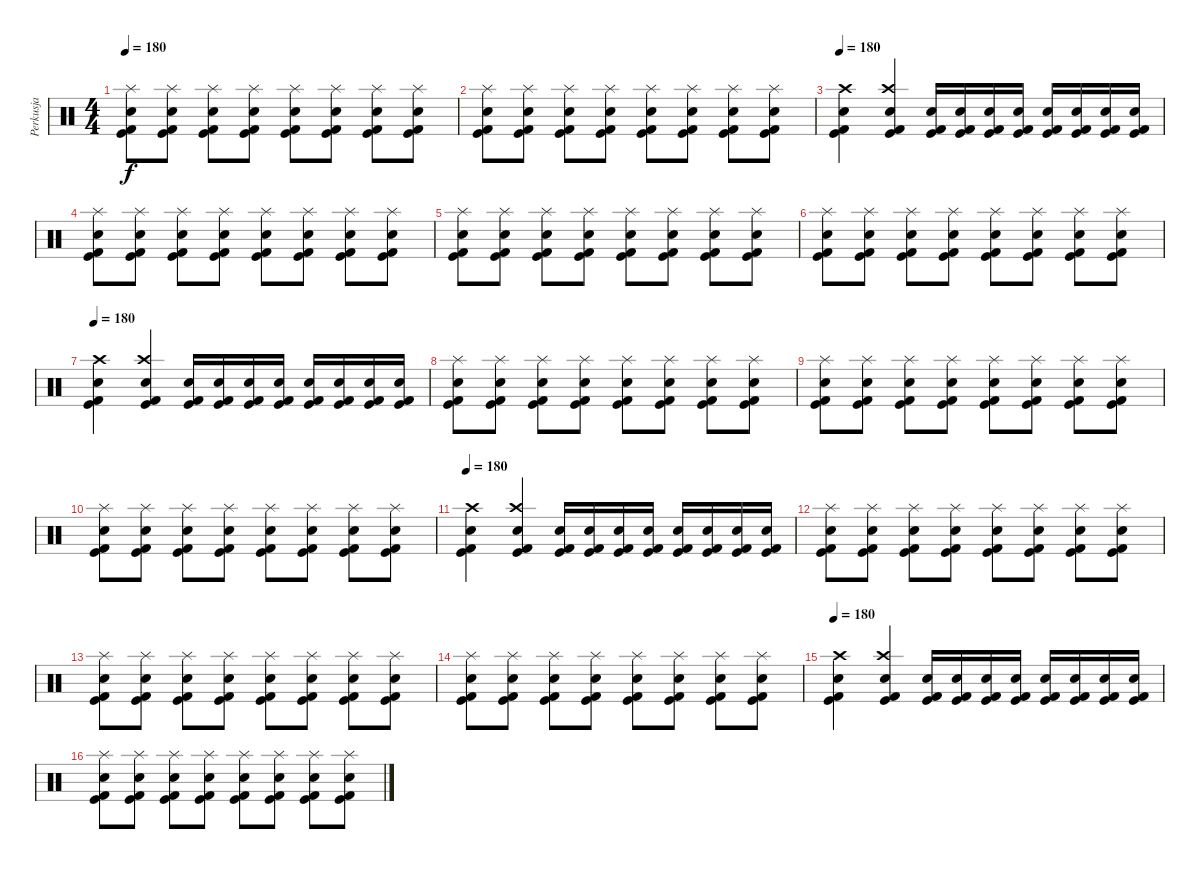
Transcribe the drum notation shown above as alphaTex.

\track ("Perkusja" "Perkusja") {instrument percussion}
\staff {score}
\articulation defaults
\ts (4 4)
\tempo 180
\clef neutral
\ks c
("Kick (hit)" "Kick (hit) 2" "Snare (hit) 2" "Splash (hit)").8{dy f} ("Kick (hit)" "Kick (hit) 2" "Snare (hit) 2" "Splash (hit)").8 ("Kick (hit)" "Kick (hit) 2" "Snare (hit) 2" "Splash (hit)").8 ("Kick (hit)" "Kick (hit) 2" "Snare (hit) 2" "Splash (hit)").8 ("Kick (hit)" "Kick (hit) 2" "Snare (hit) 2" "Splash (hit)").8 ("Kick (hit)" "Kick (hit) 2" "Snare (hit) 2" "Splash (hit)").8 ("Kick (hit)" "Kick (hit) 2" "Snare (hit) 2" "Splash (hit)").8 ("Kick (hit)" "Kick (hit) 2" "Snare (hit) 2" "Splash (hit)").8 |
("Kick (hit)" "Kick (hit) 2" "Snare (hit) 2" "Splash (hit)").8 ("Kick (hit)" "Kick (hit) 2" "Snare (hit) 2" "Splash (hit)").8 ("Kick (hit)" "Kick (hit) 2" "Snare (hit) 2" "Splash (hit)").8 ("Kick (hit)" "Kick (hit) 2" "Snare (hit) 2" "Splash (hit)").8 ("Kick (hit)" "Kick (hit) 2" "Snare (hit) 2" "Splash (hit)").8 ("Kick (hit)" "Kick (hit) 2" "Snare (hit) 2" "Splash (hit)").8 ("Kick (hit)" "Kick (hit) 2" "Snare (hit) 2" "Splash (hit)").8 ("Kick (hit)" "Kick (hit) 2" "Snare (hit) 2" "Splash (hit)").8 |
\tempo 180
("Crash high (hit)" "Snare (hit) 2" "Kick (hit) 2" "Kick (hit)").4 ("Crash high (hit)" "Electric Snare (hit)" "Kick (hit) 2" "Kick (hit)").4 ("Snare (hit) 2" "Kick (hit) 2" "Kick (hit)").16 ("Snare (hit) 2" "Kick (hit) 2" "Kick (hit)").16 ("Snare (hit) 2" "Kick (hit) 2" "Kick (hit)").16 ("Snare (hit) 2" "Kick (hit) 2" "Kick (hit)").16 ("Snare (hit) 2" "Kick (hit) 2" "Kick (hit)").16 ("Snare (hit) 2" "Kick (hit) 2" "Kick (hit)").16 ("Snare (hit) 2" "Kick (hit) 2" "Kick (hit)").16 ("Snare (hit) 2" "Kick (hit) 2" "Kick (hit)").16 |
("Kick (hit)" "Kick (hit) 2" "Snare (hit) 2" "Splash (hit)").8 ("Kick (hit)" "Kick (hit) 2" "Snare (hit) 2" "Splash (hit)").8 ("Kick (hit)" "Kick (hit) 2" "Snare (hit) 2" "Splash (hit)").8 ("Kick (hit)" "Kick (hit) 2" "Snare (hit) 2" "Splash (hit)").8 ("Kick (hit)" "Kick (hit) 2" "Snare (hit) 2" "Splash (hit)").8 ("Kick (hit)" "Kick (hit) 2" "Snare (hit) 2" "Splash (hit)").8 ("Kick (hit)" "Kick (hit) 2" "Snare (hit) 2" "Splash (hit)").8 ("Kick (hit)" "Kick (hit) 2" "Snare (hit) 2" "Splash (hit)").8 |
("Kick (hit)" "Kick (hit) 2" "Snare (hit) 2" "Splash (hit)").8 ("Kick (hit)" "Kick (hit) 2" "Snare (hit) 2" "Splash (hit)").8 ("Kick (hit)" "Kick (hit) 2" "Snare (hit) 2" "Splash (hit)").8 ("Kick (hit)" "Kick (hit) 2" "Snare (hit) 2" "Splash (hit)").8 ("Kick (hit)" "Kick (hit) 2" "Snare (hit) 2" "Splash (hit)").8 ("Kick (hit)" "Kick (hit) 2" "Snare (hit) 2" "Splash (hit)").8 ("Kick (hit)" "Kick (hit) 2" "Snare (hit) 2" "Splash (hit)").8 ("Kick (hit)" "Kick (hit) 2" "Snare (hit) 2" "Splash (hit)").8 |
("Kick (hit)" "Kick (hit) 2" "Snare (hit) 2" "Splash (hit)").8 ("Kick (hit)" "Kick (hit) 2" "Snare (hit) 2" "Splash (hit)").8 ("Kick (hit)" "Kick (hit) 2" "Snare (hit) 2" "Splash (hit)").8 ("Kick (hit)" "Kick (hit) 2" "Snare (hit) 2" "Splash (hit)").8 ("Kick (hit)" "Kick (hit) 2" "Snare (hit) 2" "Splash (hit)").8 ("Kick (hit)" "Kick (hit) 2" "Snare (hit) 2" "Splash (hit)").8 ("Kick (hit)" "Kick (hit) 2" "Snare (hit) 2" "Splash (hit)").8 ("Kick (hit)" "Kick (hit) 2" "Snare (hit) 2" "Splash (hit)").8 |
\tempo 180
("Crash high (hit)" "Snare (hit) 2" "Kick (hit) 2" "Kick (hit)").4 ("Crash high (hit)" "Electric Snare (hit)" "Kick (hit) 2" "Kick (hit)").4 ("Snare (hit) 2" "Kick (hit) 2" "Kick (hit)").16 ("Snare (hit) 2" "Kick (hit) 2" "Kick (hit)").16 ("Snare (hit) 2" "Kick (hit) 2" "Kick (hit)").16 ("Snare (hit) 2" "Kick (hit) 2" "Kick (hit)").16 ("Snare (hit) 2" "Kick (hit) 2" "Kick (hit)").16 ("Snare (hit) 2" "Kick (hit) 2" "Kick (hit)").16 ("Snare (hit) 2" "Kick (hit) 2" "Kick (hit)").16 ("Snare (hit) 2" "Kick (hit) 2" "Kick (hit)").16 |
("Kick (hit)" "Kick (hit) 2" "Snare (hit) 2" "Splash (hit)").8 ("Kick (hit)" "Kick (hit) 2" "Snare (hit) 2" "Splash (hit)").8 ("Kick (hit)" "Kick (hit) 2" "Snare (hit) 2" "Splash (hit)").8 ("Kick (hit)" "Kick (hit) 2" "Snare (hit) 2" "Splash (hit)").8 ("Kick (hit)" "Kick (hit) 2" "Snare (hit) 2" "Splash (hit)").8 ("Kick (hit)" "Kick (hit) 2" "Snare (hit) 2" "Splash (hit)").8 ("Kick (hit)" "Kick (hit) 2" "Snare (hit) 2" "Splash (hit)").8 ("Kick (hit)" "Kick (hit) 2" "Snare (hit) 2" "Splash (hit)").8 |
("Kick (hit)" "Kick (hit) 2" "Snare (hit) 2" "Splash (hit)").8 ("Kick (hit)" "Kick (hit) 2" "Snare (hit) 2" "Splash (hit)").8 ("Kick (hit)" "Kick (hit) 2" "Snare (hit) 2" "Splash (hit)").8 ("Kick (hit)" "Kick (hit) 2" "Snare (hit) 2" "Splash (hit)").8 ("Kick (hit)" "Kick (hit) 2" "Snare (hit) 2" "Splash (hit)").8 ("Kick (hit)" "Kick (hit) 2" "Snare (hit) 2" "Splash (hit)").8 ("Kick (hit)" "Kick (hit) 2" "Snare (hit) 2" "Splash (hit)").8 ("Kick (hit)" "Kick (hit) 2" "Snare (hit) 2" "Splash (hit)").8 |
("Kick (hit)" "Kick (hit) 2" "Snare (hit) 2" "Splash (hit)").8 ("Kick (hit)" "Kick (hit) 2" "Snare (hit) 2" "Splash (hit)").8 ("Kick (hit)" "Kick (hit) 2" "Snare (hit) 2" "Splash (hit)").8 ("Kick (hit)" "Kick (hit) 2" "Snare (hit) 2" "Splash (hit)").8 ("Kick (hit)" "Kick (hit) 2" "Snare (hit) 2" "Splash (hit)").8 ("Kick (hit)" "Kick (hit) 2" "Snare (hit) 2" "Splash (hit)").8 ("Kick (hit)" "Kick (hit) 2" "Snare (hit) 2" "Splash (hit)").8 ("Kick (hit)" "Kick (hit) 2" "Snare (hit) 2" "Splash (hit)").8 |
\tempo 180
("Crash high (hit)" "Snare (hit) 2" "Kick (hit) 2" "Kick (hit)").4 ("Crash high (hit)" "Electric Snare (hit)" "Kick (hit) 2" "Kick (hit)").4 ("Snare (hit) 2" "Kick (hit) 2" "Kick (hit)").16 ("Snare (hit) 2" "Kick (hit) 2" "Kick (hit)").16 ("Snare (hit) 2" "Kick (hit) 2" "Kick (hit)").16 ("Snare (hit) 2" "Kick (hit) 2" "Kick (hit)").16 ("Snare (hit) 2" "Kick (hit) 2" "Kick (hit)").16 ("Snare (hit) 2" "Kick (hit) 2" "Kick (hit)").16 ("Snare (hit) 2" "Kick (hit) 2" "Kick (hit)").16 ("Snare (hit) 2" "Kick (hit) 2" "Kick (hit)").16 |
("Kick (hit)" "Kick (hit) 2" "Snare (hit) 2" "Splash (hit)").8 ("Kick (hit)" "Kick (hit) 2" "Snare (hit) 2" "Splash (hit)").8 ("Kick (hit)" "Kick (hit) 2" "Snare (hit) 2" "Splash (hit)").8 ("Kick (hit)" "Kick (hit) 2" "Snare (hit) 2" "Splash (hit)").8 ("Kick (hit)" "Kick (hit) 2" "Snare (hit) 2" "Splash (hit)").8 ("Kick (hit)" "Kick (hit) 2" "Snare (hit) 2" "Splash (hit)").8 ("Kick (hit)" "Kick (hit) 2" "Snare (hit) 2" "Splash (hit)").8 ("Kick (hit)" "Kick (hit) 2" "Snare (hit) 2" "Splash (hit)").8 |
("Kick (hit)" "Kick (hit) 2" "Snare (hit) 2" "Splash (hit)").8 ("Kick (hit)" "Kick (hit) 2" "Snare (hit) 2" "Splash (hit)").8 ("Kick (hit)" "Kick (hit) 2" "Snare (hit) 2" "Splash (hit)").8 ("Kick (hit)" "Kick (hit) 2" "Snare (hit) 2" "Splash (hit)").8 ("Kick (hit)" "Kick (hit) 2" "Snare (hit) 2" "Splash (hit)").8 ("Kick (hit)" "Kick (hit) 2" "Snare (hit) 2" "Splash (hit)").8 ("Kick (hit)" "Kick (hit) 2" "Snare (hit) 2" "Splash (hit)").8 ("Kick (hit)" "Kick (hit) 2" "Snare (hit) 2" "Splash (hit)").8 |
("Kick (hit)" "Kick (hit) 2" "Snare (hit) 2" "Splash (hit)").8 ("Kick (hit)" "Kick (hit) 2" "Snare (hit) 2" "Splash (hit)").8 ("Kick (hit)" "Kick (hit) 2" "Snare (hit) 2" "Splash (hit)").8 ("Kick (hit)" "Kick (hit) 2" "Snare (hit) 2" "Splash (hit)").8 ("Kick (hit)" "Kick (hit) 2" "Snare (hit) 2" "Splash (hit)").8 ("Kick (hit)" "Kick (hit) 2" "Snare (hit) 2" "Splash (hit)").8 ("Kick (hit)" "Kick (hit) 2" "Snare (hit) 2" "Splash (hit)").8 ("Kick (hit)" "Kick (hit) 2" "Snare (hit) 2" "Splash (hit)").8 |
\tempo 180
("Crash high (hit)" "Snare (hit) 2" "Kick (hit) 2" "Kick (hit)").4 ("Crash high (hit)" "Electric Snare (hit)" "Kick (hit) 2" "Kick (hit)").4 ("Snare (hit) 2" "Kick (hit) 2" "Kick (hit)").16 ("Snare (hit) 2" "Kick (hit) 2" "Kick (hit)").16 ("Snare (hit) 2" "Kick (hit) 2" "Kick (hit)").16 ("Snare (hit) 2" "Kick (hit) 2" "Kick (hit)").16 ("Snare (hit) 2" "Kick (hit) 2" "Kick (hit)").16 ("Snare (hit) 2" "Kick (hit) 2" "Kick (hit)").16 ("Snare (hit) 2" "Kick (hit) 2" "Kick (hit)").16 ("Snare (hit) 2" "Kick (hit) 2" "Kick (hit)").16 |
("Kick (hit)" "Kick (hit) 2" "Snare (hit) 2" "Splash (hit)").8 ("Kick (hit)" "Kick (hit) 2" "Snare (hit) 2" "Splash (hit)").8 ("Kick (hit)" "Kick (hit) 2" "Snare (hit) 2" "Splash (hit)").8 ("Kick (hit)" "Kick (hit) 2" "Snare (hit) 2" "Splash (hit)").8 ("Kick (hit)" "Kick (hit) 2" "Snare (hit) 2" "Splash (hit)").8 ("Kick (hit)" "Kick (hit) 2" "Snare (hit) 2" "Splash (hit)").8 ("Kick (hit)" "Kick (hit) 2" "Snare (hit) 2" "Splash (hit)").8 ("Kick (hit)" "Kick (hit) 2" "Snare (hit) 2" "Splash (hit)").8
